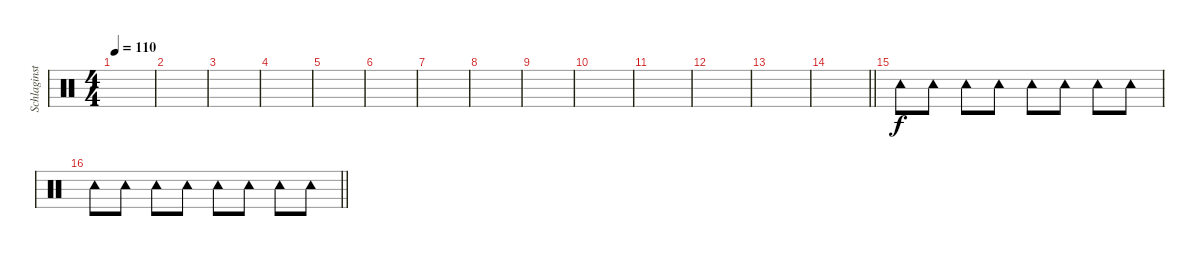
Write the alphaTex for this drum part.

\track ("Schlaginstrumente - Auswahl" "Schlaginst") {instrument percussion}
\staff {score}
\articulation defaults
\ts (4 4)
\tempo 110
\clef neutral
\ks c
|
|
|
|
|
|
|
|
|
|
|
|
|
\barLineRight lightlight
|
"Tambourine (hit)".8{balance 16} "Tambourine (hit)".8 "Tambourine (hit)".8 "Tambourine (hit)".8 "Tambourine (hit)".8 "Tambourine (hit)".8 "Tambourine (hit)".8 "Tambourine (hit)".8 |
\barLineRight lightlight "Tambourine (hit)".8{balance 16} "Tambourine (hit)".8 "Tambourine (hit)".8 "Tambourine (hit)".8 "Tambourine (hit)".8 "Tambourine (hit)".8 "Tambourine (hit)".8 "Tambourine (hit)".8
